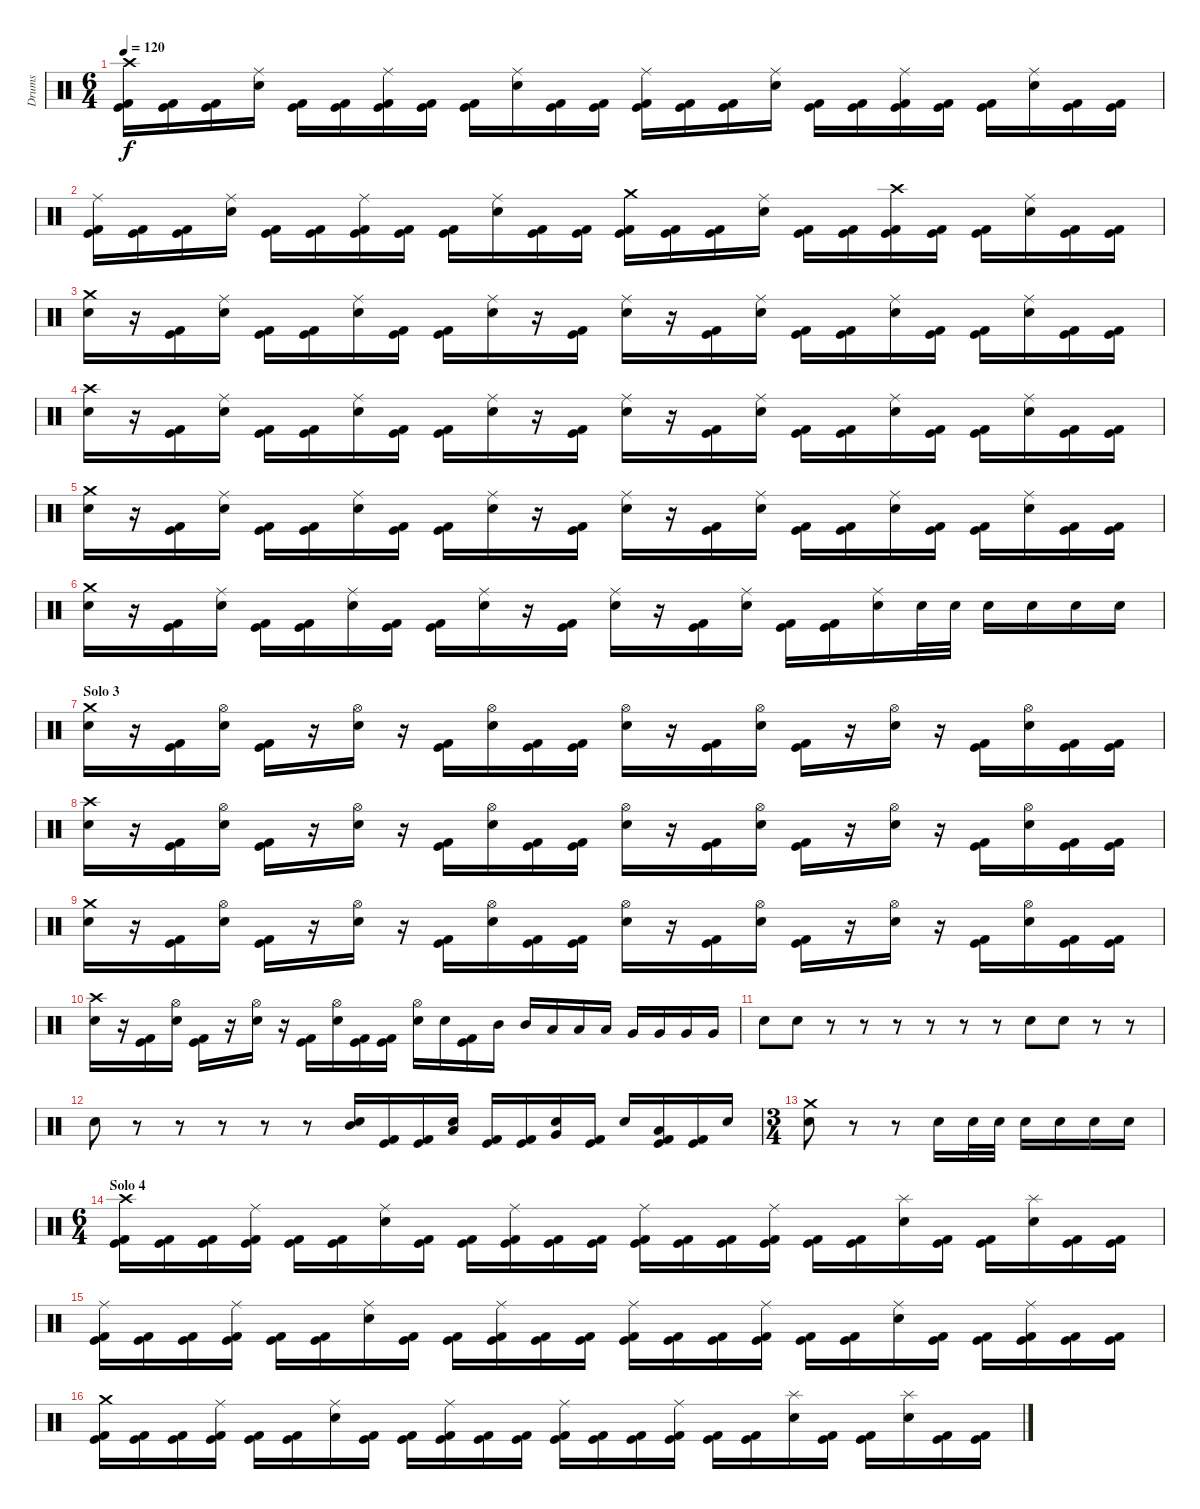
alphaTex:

\track ("Drums" "Drums") {instrument percussion}
\staff {score}
\articulation defaults
\ts (6 4)
\tempo 120
\clef neutral
\ks c
("Crash high (hit)" "Kick (hit) 2" "Kick (hit)").16{dy f} ("Kick (hit) 2" "Kick (hit)").16 ("Kick (hit) 2" "Kick (hit)").16 ("Ride (middle)" "Electric Snare (hit)").16 ("Kick (hit) 2" "Kick (hit)").16 ("Kick (hit) 2" "Kick (hit)").16 ("Ride (middle)" "Kick (hit) 2" "Kick (hit)").16 ("Kick (hit) 2" "Kick (hit)").16 ("Kick (hit) 2" "Kick (hit)").16 ("Ride (middle)" "Electric Snare (hit)").16 ("Kick (hit) 2" "Kick (hit)").16 ("Kick (hit) 2" "Kick (hit)").16 ("Ride (middle)" "Kick (hit) 2" "Kick (hit)").16 ("Kick (hit) 2" "Kick (hit)").16 ("Kick (hit) 2" "Kick (hit)").16 ("Ride (middle)" "Electric Snare (hit)").16 ("Kick (hit) 2" "Kick (hit)").16 ("Kick (hit) 2" "Kick (hit)").16 ("Ride (middle)" "Kick (hit) 2" "Kick (hit)").16 ("Kick (hit) 2" "Kick (hit)").16 ("Kick (hit) 2" "Kick (hit)").16 ("Ride (middle)" "Electric Snare (hit)").16 ("Kick (hit) 2" "Kick (hit)").16 ("Kick (hit) 2" "Kick (hit)").16 |
("Ride (middle)" "Kick (hit) 2" "Kick (hit)").16 ("Kick (hit) 2" "Kick (hit)").16 ("Kick (hit) 2" "Kick (hit)").16 ("Ride (middle)" "Electric Snare (hit)").16 ("Kick (hit) 2" "Kick (hit)").16 ("Kick (hit) 2" "Kick (hit)").16 ("Ride (middle)" "Kick (hit) 2" "Kick (hit)").16 ("Kick (hit) 2" "Kick (hit)").16 ("Kick (hit) 2" "Kick (hit)").16 ("Ride (middle)" "Electric Snare (hit)").16 ("Kick (hit) 2" "Kick (hit)").16 ("Kick (hit) 2" "Kick (hit)").16 ("Crash medium (hit)" "Kick (hit) 2" "Kick (hit)").16 ("Kick (hit) 2" "Kick (hit)").16 ("Kick (hit) 2" "Kick (hit)").16 ("Ride (middle)" "Electric Snare (hit)").16 ("Kick (hit) 2" "Kick (hit)").16 ("Kick (hit) 2" "Kick (hit)").16 ("Crash high (hit)" "Kick (hit) 2" "Kick (hit)").16 ("Kick (hit) 2" "Kick (hit)").16 ("Kick (hit) 2" "Kick (hit)").16 ("Ride (middle)" "Electric Snare (hit)").16 ("Kick (hit) 2" "Kick (hit)").16 ("Kick (hit) 2" "Kick (hit)").16 |
("Crash medium (hit)" "Electric Snare (hit)").16 r.16 ("Kick (hit)" "Kick (hit) 2").16 ("Ride (middle)" "Electric Snare (hit)").16 ("Kick (hit)" "Kick (hit) 2").16 ("Kick (hit)" "Kick (hit) 2").16 ("Ride (middle)" "Electric Snare (hit)").16 ("Kick (hit)" "Kick (hit) 2").16 ("Kick (hit)" "Kick (hit) 2").16 ("Ride (middle)" "Electric Snare (hit)").16 r.16 ("Kick (hit)" "Kick (hit) 2").16 ("Ride (middle)" "Electric Snare (hit)").16 r.16 ("Kick (hit)" "Kick (hit) 2").16 ("Ride (middle)" "Electric Snare (hit)").16 ("Kick (hit)" "Kick (hit) 2").16 ("Kick (hit)" "Kick (hit) 2").16 ("Ride (middle)" "Electric Snare (hit)").16 ("Kick (hit)" "Kick (hit) 2").16 ("Kick (hit)" "Kick (hit) 2").16 ("Ride (middle)" "Electric Snare (hit)").16 ("Kick (hit)" "Kick (hit) 2").16 ("Kick (hit)" "Kick (hit) 2").16 |
("Crash high (hit)" "Electric Snare (hit)").16 r.16 ("Kick (hit)" "Kick (hit) 2").16 ("Ride (middle)" "Electric Snare (hit)").16 ("Kick (hit)" "Kick (hit) 2").16 ("Kick (hit)" "Kick (hit) 2").16 ("Ride (middle)" "Electric Snare (hit)").16 ("Kick (hit)" "Kick (hit) 2").16 ("Kick (hit)" "Kick (hit) 2").16 ("Ride (middle)" "Electric Snare (hit)").16 r.16 ("Kick (hit)" "Kick (hit) 2").16 ("Ride (middle)" "Electric Snare (hit)").16 r.16 ("Kick (hit)" "Kick (hit) 2").16 ("Ride (middle)" "Electric Snare (hit)").16 ("Kick (hit)" "Kick (hit) 2").16 ("Kick (hit)" "Kick (hit) 2").16 ("Ride (middle)" "Electric Snare (hit)").16 ("Kick (hit)" "Kick (hit) 2").16 ("Kick (hit)" "Kick (hit) 2").16 ("Ride (middle)" "Electric Snare (hit)").16 ("Kick (hit)" "Kick (hit) 2").16 ("Kick (hit)" "Kick (hit) 2").16 |
("Crash medium (hit)" "Electric Snare (hit)").16 r.16 ("Kick (hit)" "Kick (hit) 2").16 ("Ride (middle)" "Electric Snare (hit)").16 ("Kick (hit)" "Kick (hit) 2").16 ("Kick (hit)" "Kick (hit) 2").16 ("Ride (middle)" "Electric Snare (hit)").16 ("Kick (hit)" "Kick (hit) 2").16 ("Kick (hit)" "Kick (hit) 2").16 ("Ride (middle)" "Electric Snare (hit)").16 r.16 ("Kick (hit)" "Kick (hit) 2").16 ("Ride (middle)" "Electric Snare (hit)").16 r.16 ("Kick (hit)" "Kick (hit) 2").16 ("Ride (middle)" "Electric Snare (hit)").16 ("Kick (hit)" "Kick (hit) 2").16 ("Kick (hit)" "Kick (hit) 2").16 ("Ride (middle)" "Electric Snare (hit)").16 ("Kick (hit)" "Kick (hit) 2").16 ("Kick (hit)" "Kick (hit) 2").16 ("Ride (middle)" "Electric Snare (hit)").16 ("Kick (hit)" "Kick (hit) 2").16 ("Kick (hit)" "Kick (hit) 2").16 |
("Crash medium (hit)" "Electric Snare (hit)").16 r.16 ("Kick (hit)" "Kick (hit) 2").16 ("Ride (middle)" "Electric Snare (hit)").16 ("Kick (hit)" "Kick (hit) 2").16 ("Kick (hit)" "Kick (hit) 2").16 ("Ride (middle)" "Electric Snare (hit)").16 ("Kick (hit)" "Kick (hit) 2").16 ("Kick (hit)" "Kick (hit) 2").16 ("Ride (middle)" "Electric Snare (hit)").16 r.16 ("Kick (hit)" "Kick (hit) 2").16 ("Ride (middle)" "Electric Snare (hit)").16 r.16 ("Kick (hit)" "Kick (hit) 2").16 ("Ride (middle)" "Electric Snare (hit)").16 ("Kick (hit)" "Kick (hit) 2").16 ("Kick (hit)" "Kick (hit) 2").16 ("Ride (middle)" "Electric Snare (hit)").16 "Electric Snare (hit)".32 "Electric Snare (hit)".32 "Electric Snare (hit)".16 "Electric Snare (hit)".16 "Electric Snare (hit)".16 "Electric Snare (hit)".16 |
\section ("" "Solo 3")
("Crash medium (hit)" "Electric Snare (hit)").16 r.16 ("Kick (hit) 2" "Kick (hit)").16 ("Hi-Hat (open)" "Electric Snare (hit)").16 ("Kick (hit) 2" "Kick (hit)").16 r.16 ("Hi-Hat (open)" "Electric Snare (hit)").16 r.16 ("Kick (hit) 2" "Kick (hit)").16 ("Hi-Hat (open)" "Electric Snare (hit)").16 ("Kick (hit) 2" "Kick (hit)").16 ("Kick (hit) 2" "Kick (hit)").16 ("Hi-Hat (open)" "Electric Snare (hit)").16 r.16 ("Kick (hit) 2" "Kick (hit)").16 ("Hi-Hat (open)" "Electric Snare (hit)").16 ("Kick (hit) 2" "Kick (hit)").16 r.16 ("Hi-Hat (open)" "Electric Snare (hit)").16 r.16 ("Kick (hit) 2" "Kick (hit)").16 ("Hi-Hat (open)" "Electric Snare (hit)").16 ("Kick (hit) 2" "Kick (hit)").16 ("Kick (hit) 2" "Kick (hit)").16 |
("Crash high (hit)" "Electric Snare (hit)").16 r.16 ("Kick (hit) 2" "Kick (hit)").16 ("Hi-Hat (open)" "Electric Snare (hit)").16 ("Kick (hit) 2" "Kick (hit)").16 r.16 ("Hi-Hat (open)" "Electric Snare (hit)").16 r.16 ("Kick (hit) 2" "Kick (hit)").16 ("Hi-Hat (open)" "Electric Snare (hit)").16 ("Kick (hit) 2" "Kick (hit)").16 ("Kick (hit) 2" "Kick (hit)").16 ("Hi-Hat (open)" "Electric Snare (hit)").16 r.16 ("Kick (hit) 2" "Kick (hit)").16 ("Hi-Hat (open)" "Electric Snare (hit)").16 ("Kick (hit) 2" "Kick (hit)").16 r.16 ("Hi-Hat (open)" "Electric Snare (hit)").16 r.16 ("Kick (hit) 2" "Kick (hit)").16 ("Hi-Hat (open)" "Electric Snare (hit)").16 ("Kick (hit) 2" "Kick (hit)").16 ("Kick (hit) 2" "Kick (hit)").16 |
("Crash medium (hit)" "Electric Snare (hit)").16 r.16 ("Kick (hit) 2" "Kick (hit)").16 ("Hi-Hat (open)" "Electric Snare (hit)").16 ("Kick (hit) 2" "Kick (hit)").16 r.16 ("Hi-Hat (open)" "Electric Snare (hit)").16 r.16 ("Kick (hit) 2" "Kick (hit)").16 ("Hi-Hat (open)" "Electric Snare (hit)").16 ("Kick (hit) 2" "Kick (hit)").16 ("Kick (hit) 2" "Kick (hit)").16 ("Hi-Hat (open)" "Electric Snare (hit)").16 r.16 ("Kick (hit) 2" "Kick (hit)").16 ("Hi-Hat (open)" "Electric Snare (hit)").16 ("Kick (hit) 2" "Kick (hit)").16 r.16 ("Hi-Hat (open)" "Electric Snare (hit)").16 r.16 ("Kick (hit) 2" "Kick (hit)").16 ("Hi-Hat (open)" "Electric Snare (hit)").16 ("Kick (hit) 2" "Kick (hit)").16 ("Kick (hit) 2" "Kick (hit)").16 |
("Crash high (hit)" "Electric Snare (hit)").16 r.16 ("Kick (hit) 2" "Kick (hit)").16 ("Hi-Hat (open)" "Electric Snare (hit)").16 ("Kick (hit) 2" "Kick (hit)").16 r.16 ("Hi-Hat (open)" "Electric Snare (hit)").16 r.16 ("Kick (hit) 2" "Kick (hit)").16 ("Hi-Hat (open)" "Electric Snare (hit)").16 ("Kick (hit) 2" "Kick (hit)").16 ("Kick (hit) 2" "Kick (hit)").16 ("Hi-Hat (open)" "Electric Snare (hit)").16 "Electric Snare (hit)".16 ("Kick (hit) 2" "Kick (hit)").16 "Mid Tom (hit)".16 "Mid Tom (hit)".16 "Low Tom (hit)".16 "Low Tom (hit)".16 "Low Tom (hit)".16 "Very Low Tom (hit)".16 "Very Low Tom (hit)".16 "Very Low Tom (hit)".16 "Very Low Tom (hit)".16 |
"Electric Snare (hit)".8 "Electric Snare (hit)".8 r.8 r.8 r.8 r.8 r.8 r.8 "Electric Snare (hit)".8 "Electric Snare (hit)".8 r.8 r.8 |
"Electric Snare (hit)".8 r.8 r.8 r.8 r.8 r.8 ("Mid Tom (hit)" "Electric Snare (hit)").16 ("Kick (hit)" "Kick (hit) 2").16 ("Kick (hit)" "Kick (hit) 2").16 ("Low Tom (hit)" "Electric Snare (hit)").16 ("Kick (hit)" "Kick (hit) 2").16 ("Kick (hit)" "Kick (hit) 2").16 ("Very Low Tom (hit)" "Electric Snare (hit)").16 ("Kick (hit)" "Kick (hit) 2").16 "Electric Snare (hit)".16 ("Low Floor Tom (hit)" "Kick (hit)" "Kick (hit) 2").16 ("Kick (hit)" "Kick (hit) 2").16 "Electric Snare (hit)".16 |
\ts (3 4)
("Crash medium (hit)" "Electric Snare (hit)").8 r.8 r.8 "Electric Snare (hit)".16 "Electric Snare (hit)".32 "Electric Snare (hit)".32 "Electric Snare (hit)".16 "Electric Snare (hit)".16 "Electric Snare (hit)".16 "Electric Snare (hit)".16 |
\ts (6 4)
\section ("" "Solo 4")
("Crash high (hit)" "Kick (hit)" "Kick (hit) 2").16 ("Kick (hit)" "Kick (hit) 2").16 ("Kick (hit)" "Kick (hit) 2").16 ("Ride (middle)" "Kick (hit)" "Kick (hit) 2").16 ("Kick (hit)" "Kick (hit) 2").16 ("Kick (hit)" "Kick (hit) 2").16 ("Ride (middle)" "Electric Snare (hit)").16 ("Kick (hit)" "Kick (hit) 2").16 ("Kick (hit)" "Kick (hit) 2").16 ("Ride (middle)" "Kick (hit)" "Kick (hit) 2").16 ("Kick (hit)" "Kick (hit) 2").16 ("Kick (hit)" "Kick (hit) 2").16 ("Ride (middle)" "Kick (hit)" "Kick (hit) 2").16 ("Kick (hit)" "Kick (hit) 2").16 ("Kick (hit)" "Kick (hit) 2").16 ("Ride (middle)" "Kick (hit)" "Kick (hit) 2").16 ("Kick (hit)" "Kick (hit) 2").16 ("Kick (hit)" "Kick (hit) 2").16 ("Splash (hit)" "Electric Snare (hit)").16 ("Kick (hit)" "Kick (hit) 2").16 ("Kick (hit)" "Kick (hit) 2").16 ("Splash (hit)" "Electric Snare (hit)").16 ("Kick (hit)" "Kick (hit) 2").16 ("Kick (hit)" "Kick (hit) 2").16 |
("Ride (middle)" "Kick (hit)" "Kick (hit) 2").16 ("Kick (hit)" "Kick (hit) 2").16 ("Kick (hit)" "Kick (hit) 2").16 ("Ride (middle)" "Kick (hit)" "Kick (hit) 2").16 ("Kick (hit)" "Kick (hit) 2").16 ("Kick (hit)" "Kick (hit) 2").16 ("Ride (middle)" "Electric Snare (hit)").16 ("Kick (hit)" "Kick (hit) 2").16 ("Kick (hit)" "Kick (hit) 2").16 ("Ride (middle)" "Kick (hit)" "Kick (hit) 2").16 ("Kick (hit)" "Kick (hit) 2").16 ("Kick (hit)" "Kick (hit) 2").16 ("Ride (middle)" "Kick (hit)" "Kick (hit) 2").16 ("Kick (hit)" "Kick (hit) 2").16 ("Kick (hit)" "Kick (hit) 2").16 ("Ride (middle)" "Kick (hit)" "Kick (hit) 2").16 ("Kick (hit)" "Kick (hit) 2").16 ("Kick (hit)" "Kick (hit) 2").16 ("Ride (middle)" "Electric Snare (hit)").16 ("Kick (hit)" "Kick (hit) 2").16 ("Kick (hit)" "Kick (hit) 2").16 ("Ride (middle)" "Kick (hit)" "Kick (hit) 2").16 ("Kick (hit)" "Kick (hit) 2").16 ("Kick (hit)" "Kick (hit) 2").16 |
("Crash medium (hit)" "Kick (hit)" "Kick (hit) 2").16 ("Kick (hit)" "Kick (hit) 2").16 ("Kick (hit)" "Kick (hit) 2").16 ("Ride (middle)" "Kick (hit)" "Kick (hit) 2").16 ("Kick (hit)" "Kick (hit) 2").16 ("Kick (hit)" "Kick (hit) 2").16 ("Ride (middle)" "Electric Snare (hit)").16 ("Kick (hit)" "Kick (hit) 2").16 ("Kick (hit)" "Kick (hit) 2").16 ("Ride (middle)" "Kick (hit)" "Kick (hit) 2").16 ("Kick (hit)" "Kick (hit) 2").16 ("Kick (hit)" "Kick (hit) 2").16 ("Ride (middle)" "Kick (hit)" "Kick (hit) 2").16 ("Kick (hit)" "Kick (hit) 2").16 ("Kick (hit)" "Kick (hit) 2").16 ("Ride (middle)" "Kick (hit)" "Kick (hit) 2").16 ("Kick (hit)" "Kick (hit) 2").16 ("Kick (hit)" "Kick (hit) 2").16 ("Splash (hit)" "Electric Snare (hit)").16 ("Kick (hit)" "Kick (hit) 2").16 ("Kick (hit)" "Kick (hit) 2").16 ("Splash (hit)" "Electric Snare (hit)").16 ("Kick (hit)" "Kick (hit) 2").16 ("Kick (hit)" "Kick (hit) 2").16
